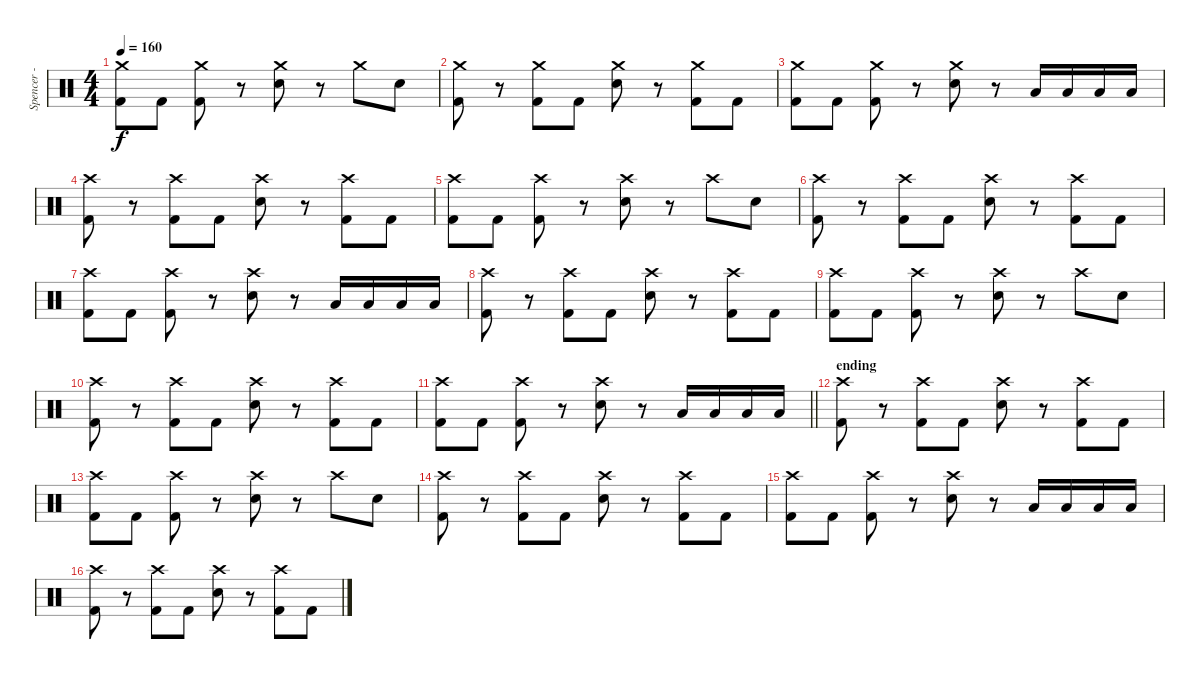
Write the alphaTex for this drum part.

\track ("Spencer - Drums" "Spencer - ") {instrument percussion}
\staff {score}
\articulation defaults
\ts (4 4)
\tempo 160
\clef neutral
\ks c
("Crash medium (hit)" "Kick (hit) 2").8{dy f} "Kick (hit) 2".8 ("Crash medium (hit)" "Kick (hit) 2").8 r.8 ("Crash medium (hit)" "Electric Snare (hit)").8 r.8 "Crash medium (hit)".8 "Electric Snare (hit)".8 |
("Crash medium (hit)" "Kick (hit) 2").8 r.8 ("Crash medium (hit)" "Kick (hit) 2").8 "Kick (hit) 2".8 ("Crash medium (hit)" "Electric Snare (hit)").8 r.8 ("Crash medium (hit)" "Kick (hit) 2").8 "Kick (hit) 2".8 |
("Crash medium (hit)" "Kick (hit) 2").8 "Kick (hit) 2".8 ("Crash medium (hit)" "Kick (hit) 2").8 r.8 ("Crash medium (hit)" "Electric Snare (hit)").8 r.8 "Low Tom (hit)".16 "Low Tom (hit)".16 "Low Tom (hit)".16 "Low Tom (hit)".16 |
("Crash high (hit)" "Kick (hit) 2").8 r.8 ("Crash high (hit)" "Kick (hit) 2").8 "Kick (hit) 2".8 ("Crash high (hit)" "Electric Snare (hit)").8 r.8 ("Crash high (hit)" "Kick (hit) 2").8 "Kick (hit) 2".8 |
("Crash high (hit)" "Kick (hit) 2").8 "Kick (hit) 2".8 ("Crash high (hit)" "Kick (hit) 2").8 r.8 ("Crash high (hit)" "Electric Snare (hit)").8 r.8 "Crash high (hit)".8 "Electric Snare (hit)".8 |
("Crash high (hit)" "Kick (hit) 2").8 r.8 ("Crash high (hit)" "Kick (hit) 2").8 "Kick (hit) 2".8 ("Crash high (hit)" "Electric Snare (hit)").8 r.8 ("Crash high (hit)" "Kick (hit) 2").8 "Kick (hit) 2".8 |
("Crash high (hit)" "Kick (hit) 2").8 "Kick (hit) 2".8 ("Crash high (hit)" "Kick (hit) 2").8 r.8 ("Crash high (hit)" "Electric Snare (hit)").8 r.8 "Low Tom (hit)".16 "Low Tom (hit)".16 "Low Tom (hit)".16 "Low Tom (hit)".16 |
("Crash high (hit)" "Kick (hit) 2").8 r.8 ("Crash high (hit)" "Kick (hit) 2").8 "Kick (hit) 2".8 ("Crash high (hit)" "Electric Snare (hit)").8 r.8 ("Crash high (hit)" "Kick (hit) 2").8 "Kick (hit) 2".8 |
("Crash high (hit)" "Kick (hit) 2").8 "Kick (hit) 2".8 ("Crash high (hit)" "Kick (hit) 2").8 r.8 ("Crash high (hit)" "Electric Snare (hit)").8 r.8 "Crash high (hit)".8 "Electric Snare (hit)".8 |
("Crash high (hit)" "Kick (hit) 2").8 r.8 ("Crash high (hit)" "Kick (hit) 2").8 "Kick (hit) 2".8 ("Crash high (hit)" "Electric Snare (hit)").8 r.8 ("Crash high (hit)" "Kick (hit) 2").8 "Kick (hit) 2".8 |
\barLineRight lightlight
("Crash high (hit)" "Kick (hit) 2").8 "Kick (hit) 2".8 ("Crash high (hit)" "Kick (hit) 2").8 r.8 ("Crash high (hit)" "Electric Snare (hit)").8 r.8 "Low Tom (hit)".16 "Low Tom (hit)".16 "Low Tom (hit)".16 "Low Tom (hit)".16 |
\section ("" "ending")
("Crash high (hit)" "Kick (hit) 2").8 r.8 ("Crash high (hit)" "Kick (hit) 2").8 "Kick (hit) 2".8 ("Crash high (hit)" "Electric Snare (hit)").8 r.8 ("Crash high (hit)" "Kick (hit) 2").8 "Kick (hit) 2".8 |
("Crash high (hit)" "Kick (hit) 2").8 "Kick (hit) 2".8 ("Crash high (hit)" "Kick (hit) 2").8 r.8 ("Crash high (hit)" "Electric Snare (hit)").8 r.8 "Crash high (hit)".8 "Electric Snare (hit)".8 |
("Crash high (hit)" "Kick (hit) 2").8 r.8 ("Crash high (hit)" "Kick (hit) 2").8 "Kick (hit) 2".8 ("Crash high (hit)" "Electric Snare (hit)").8 r.8 ("Crash high (hit)" "Kick (hit) 2").8 "Kick (hit) 2".8 |
("Crash high (hit)" "Kick (hit) 2").8 "Kick (hit) 2".8 ("Crash high (hit)" "Kick (hit) 2").8 r.8 ("Crash high (hit)" "Electric Snare (hit)").8 r.8 "Low Tom (hit)".16 "Low Tom (hit)".16 "Low Tom (hit)".16 "Low Tom (hit)".16 |
("Crash high (hit)" "Kick (hit) 2").8 r.8 ("Crash high (hit)" "Kick (hit) 2").8 "Kick (hit) 2".8 ("Crash high (hit)" "Electric Snare (hit)").8 r.8 ("Crash high (hit)" "Kick (hit) 2").8 "Kick (hit) 2".8
